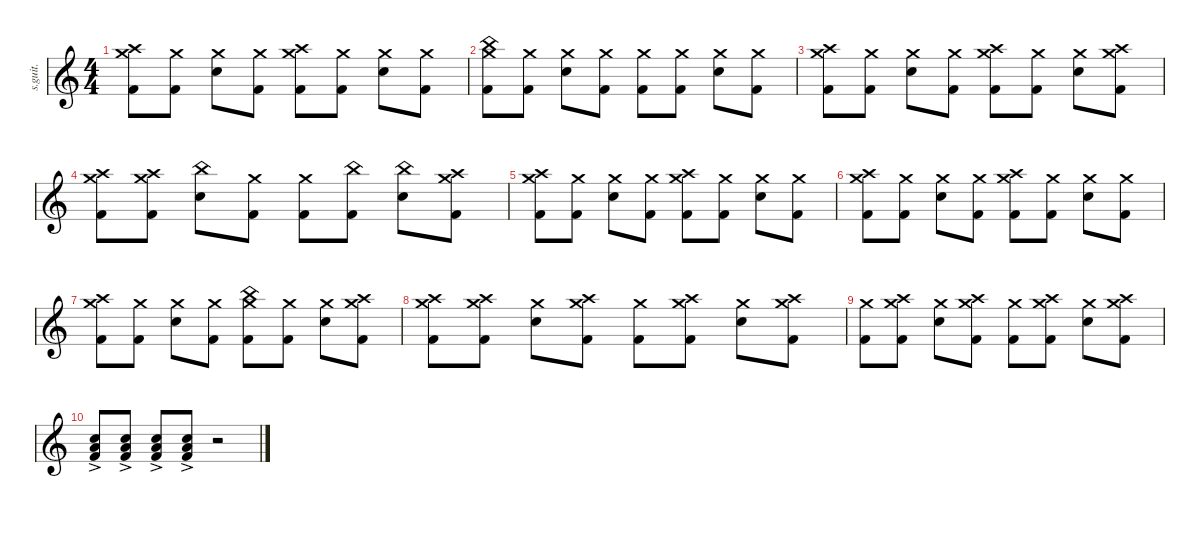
\defaultSystemsLayout 4
\hideDynamics
\bracketExtendMode nobrackets
\track ("Tre Cool" "s.guit.") {instrument percussion}
\staff {score}
\articulation defaults
\ts (4 4)
\tempo (84 hide)
\clef g2
\ks c
("Kick (hit) 2" "Crash medium (hit)" "Crash high (hit)").8{lyrics (0 "") lyrics (1 "") lyrics (2 "") lyrics (3 "") lyrics (4 "") dy f} ("Kick (hit) 2" "Crash medium (hit)").8{lyrics (0 "") lyrics (1 "") lyrics (2 "") lyrics (3 "") lyrics (4 "")} ("Snare (hit) 2" "Crash medium (hit)").8{lyrics (0 "") lyrics (1 "") lyrics (2 "") lyrics (3 "") lyrics (4 "")} ("Kick (hit) 2" "Crash medium (hit)").8{lyrics (0 "") lyrics (1 "") lyrics (2 "") lyrics (3 "") lyrics (4 "")} ("Kick (hit) 2" "Crash medium (hit)" "Crash high (hit)").8{lyrics (0 "") lyrics (1 "") lyrics (2 "") lyrics (3 "") lyrics (4 "")} ("Kick (hit) 2" "Crash medium (hit)").8{lyrics (0 "") lyrics (1 "") lyrics (2 "") lyrics (3 "") lyrics (4 "")} ("Snare (hit) 2" "Crash medium (hit)").8{lyrics (0 "") lyrics (1 "") lyrics (2 "") lyrics (3 "") lyrics (4 "")} ("Kick (hit) 2" "Crash medium (hit)").8{lyrics (0 "") lyrics (1 "") lyrics (2 "") lyrics (3 "") lyrics (4 "")} |
("Kick (hit) 2" "Crash medium (hit)" "China (hit)").8{lyrics (0 "") lyrics (1 "") lyrics (2 "") lyrics (3 "") lyrics (4 "")} ("Kick (hit) 2" "Crash medium (hit)").8{lyrics (0 "") lyrics (1 "") lyrics (2 "") lyrics (3 "") lyrics (4 "")} ("Snare (hit) 2" "Crash medium (hit)").8{lyrics (0 "") lyrics (1 "") lyrics (2 "") lyrics (3 "") lyrics (4 "")} ("Kick (hit) 2" "Crash medium (hit)").8{lyrics (0 "") lyrics (1 "") lyrics (2 "") lyrics (3 "") lyrics (4 "")} ("Kick (hit) 2" "Crash medium (hit)").8{lyrics (0 "") lyrics (1 "") lyrics (2 "") lyrics (3 "") lyrics (4 "")} ("Kick (hit) 2" "Crash medium (hit)").8{lyrics (0 "") lyrics (1 "") lyrics (2 "") lyrics (3 "") lyrics (4 "")} ("Snare (hit) 2" "Crash medium (hit)").8{lyrics (0 "") lyrics (1 "") lyrics (2 "") lyrics (3 "") lyrics (4 "")} ("Kick (hit) 2" "Crash medium (hit)").8{lyrics (0 "") lyrics (1 "") lyrics (2 "") lyrics (3 "") lyrics (4 "")} |
("Kick (hit) 2" "Crash medium (hit)" "Crash high (hit)").8{lyrics (0 "") lyrics (1 "") lyrics (2 "") lyrics (3 "") lyrics (4 "")} ("Kick (hit) 2" "Crash medium (hit)").8{lyrics (0 "") lyrics (1 "") lyrics (2 "") lyrics (3 "") lyrics (4 "")} ("Snare (hit) 2" "Crash medium (hit)").8{lyrics (0 "") lyrics (1 "") lyrics (2 "") lyrics (3 "") lyrics (4 "")} ("Kick (hit) 2" "Crash medium (hit)").8{lyrics (0 "") lyrics (1 "") lyrics (2 "") lyrics (3 "") lyrics (4 "")} ("Kick (hit) 2" "Crash medium (hit)" "Crash high (hit)").8{lyrics (0 "") lyrics (1 "") lyrics (2 "") lyrics (3 "") lyrics (4 "")} ("Kick (hit) 2" "Crash medium (hit)").8{lyrics (0 "") lyrics (1 "") lyrics (2 "") lyrics (3 "") lyrics (4 "")} ("Snare (hit) 2" "Crash medium (hit)").8{lyrics (0 "") lyrics (1 "") lyrics (2 "") lyrics (3 "") lyrics (4 "")} ("Kick (hit) 2" "Crash medium (hit)" "Crash high (hit)").8{lyrics (0 "") lyrics (1 "") lyrics (2 "") lyrics (3 "") lyrics (4 "")} |
("Kick (hit) 2" "Crash medium (hit)" "Crash high (hit)").8{lyrics (0 "") lyrics (1 "") lyrics (2 "") lyrics (3 "") lyrics (4 "")} ("Kick (hit) 2" "Crash medium (hit)" "Crash high (hit)").8{lyrics (0 "") lyrics (1 "") lyrics (2 "") lyrics (3 "") lyrics (4 "")} ("Snare (hit) 2" "China (hit)").8{lyrics (0 "") lyrics (1 "") lyrics (2 "") lyrics (3 "") lyrics (4 "")} ("Kick (hit) 2" "Crash medium (hit)").8{lyrics (0 "") lyrics (1 "") lyrics (2 "") lyrics (3 "") lyrics (4 "")} ("Kick (hit) 2" "Crash medium (hit)").8{lyrics (0 "") lyrics (1 "") lyrics (2 "") lyrics (3 "") lyrics (4 "")} ("Kick (hit) 2" "China (hit)").8{lyrics (0 "") lyrics (1 "") lyrics (2 "") lyrics (3 "") lyrics (4 "")} ("Snare (hit) 2" "China (hit)").8{lyrics (0 "") lyrics (1 "") lyrics (2 "") lyrics (3 "") lyrics (4 "")} ("Kick (hit) 2" "Crash medium (hit)" "Crash high (hit)").8{lyrics (0 "") lyrics (1 "") lyrics (2 "") lyrics (3 "") lyrics (4 "")} |
("Kick (hit) 2" "Crash medium (hit)" "Crash high (hit)").8{lyrics (0 "") lyrics (1 "") lyrics (2 "") lyrics (3 "") lyrics (4 "")} ("Kick (hit) 2" "Crash medium (hit)").8{lyrics (0 "") lyrics (1 "") lyrics (2 "") lyrics (3 "") lyrics (4 "")} ("Snare (hit) 2" "Crash medium (hit)").8{lyrics (0 "") lyrics (1 "") lyrics (2 "") lyrics (3 "") lyrics (4 "")} ("Kick (hit) 2" "Crash medium (hit)").8{lyrics (0 "") lyrics (1 "") lyrics (2 "") lyrics (3 "") lyrics (4 "")} ("Kick (hit) 2" "Crash medium (hit)" "Crash high (hit)").8{lyrics (0 "") lyrics (1 "") lyrics (2 "") lyrics (3 "") lyrics (4 "")} ("Kick (hit) 2" "Crash medium (hit)").8{lyrics (0 "") lyrics (1 "") lyrics (2 "") lyrics (3 "") lyrics (4 "")} ("Snare (hit) 2" "Crash medium (hit)").8{lyrics (0 "") lyrics (1 "") lyrics (2 "") lyrics (3 "") lyrics (4 "")} ("Kick (hit) 2" "Crash medium (hit)").8{lyrics (0 "") lyrics (1 "") lyrics (2 "") lyrics (3 "") lyrics (4 "")} |
("Kick (hit) 2" "Crash medium (hit)" "Crash high (hit)").8{lyrics (0 "") lyrics (1 "") lyrics (2 "") lyrics (3 "") lyrics (4 "")} ("Kick (hit) 2" "Crash medium (hit)").8{lyrics (0 "") lyrics (1 "") lyrics (2 "") lyrics (3 "") lyrics (4 "")} ("Snare (hit) 2" "Crash medium (hit)").8{lyrics (0 "") lyrics (1 "") lyrics (2 "") lyrics (3 "") lyrics (4 "")} ("Kick (hit) 2" "Crash medium (hit)").8{lyrics (0 "") lyrics (1 "") lyrics (2 "") lyrics (3 "") lyrics (4 "")} ("Kick (hit) 2" "Crash medium (hit)" "Crash high (hit)").8{lyrics (0 "") lyrics (1 "") lyrics (2 "") lyrics (3 "") lyrics (4 "")} ("Kick (hit) 2" "Crash medium (hit)").8{lyrics (0 "") lyrics (1 "") lyrics (2 "") lyrics (3 "") lyrics (4 "")} ("Snare (hit) 2" "Crash medium (hit)").8{lyrics (0 "") lyrics (1 "") lyrics (2 "") lyrics (3 "") lyrics (4 "")} ("Kick (hit) 2" "Crash medium (hit)").8{lyrics (0 "") lyrics (1 "") lyrics (2 "") lyrics (3 "") lyrics (4 "")} |
("Kick (hit) 2" "Crash medium (hit)" "Crash high (hit)").8{lyrics (0 "") lyrics (1 "") lyrics (2 "") lyrics (3 "") lyrics (4 "")} ("Kick (hit) 2" "Crash medium (hit)").8{lyrics (0 "") lyrics (1 "") lyrics (2 "") lyrics (3 "") lyrics (4 "")} ("Snare (hit) 2" "Crash medium (hit)").8{lyrics (0 "") lyrics (1 "") lyrics (2 "") lyrics (3 "") lyrics (4 "")} ("Kick (hit) 2" "Crash medium (hit)").8{lyrics (0 "") lyrics (1 "") lyrics (2 "") lyrics (3 "") lyrics (4 "")} ("Kick (hit) 2" "Crash medium (hit)" "China (hit)").8{lyrics (0 "") lyrics (1 "") lyrics (2 "") lyrics (3 "") lyrics (4 "")} ("Kick (hit) 2" "Crash medium (hit)").8{lyrics (0 "") lyrics (1 "") lyrics (2 "") lyrics (3 "") lyrics (4 "")} ("Snare (hit) 2" "Crash medium (hit)").8{lyrics (0 "") lyrics (1 "") lyrics (2 "") lyrics (3 "") lyrics (4 "")} ("Kick (hit) 2" "Crash medium (hit)" "Crash high (hit)").8{lyrics (0 "") lyrics (1 "") lyrics (2 "") lyrics (3 "") lyrics (4 "")} |
("Kick (hit) 2" "Crash medium (hit)" "Crash high (hit)").8{lyrics (0 "") lyrics (1 "") lyrics (2 "") lyrics (3 "") lyrics (4 "")} ("Kick (hit) 2" "Crash medium (hit)" "Crash high (hit)").8{lyrics (0 "") lyrics (1 "") lyrics (2 "") lyrics (3 "") lyrics (4 "")} ("Snare (hit) 2" "Crash medium (hit)").8{lyrics (0 "") lyrics (1 "") lyrics (2 "") lyrics (3 "") lyrics (4 "")} ("Kick (hit) 2" "Crash medium (hit)" "Crash high (hit)").8{lyrics (0 "") lyrics (1 "") lyrics (2 "") lyrics (3 "") lyrics (4 "")} ("Kick (hit) 2" "Crash medium (hit)").8{lyrics (0 "") lyrics (1 "") lyrics (2 "") lyrics (3 "") lyrics (4 "")} ("Kick (hit) 2" "Crash medium (hit)" "Crash high (hit)").8{lyrics (0 "") lyrics (1 "") lyrics (2 "") lyrics (3 "") lyrics (4 "")} ("Snare (hit) 2" "Crash medium (hit)").8{lyrics (0 "") lyrics (1 "") lyrics (2 "") lyrics (3 "") lyrics (4 "")} ("Kick (hit) 2" "Crash medium (hit)" "Crash high (hit)").8{lyrics (0 "") lyrics (1 "") lyrics (2 "") lyrics (3 "") lyrics (4 "")} |
("Kick (hit) 2" "Crash medium (hit)").8{lyrics (0 "") lyrics (1 "") lyrics (2 "") lyrics (3 "") lyrics (4 "")} ("Kick (hit) 2" "Crash medium (hit)" "Crash high (hit)").8{lyrics (0 "") lyrics (1 "") lyrics (2 "") lyrics (3 "") lyrics (4 "")} ("Snare (hit) 2" "Crash medium (hit)").8{lyrics (0 "") lyrics (1 "") lyrics (2 "") lyrics (3 "") lyrics (4 "")} ("Kick (hit) 2" "Crash medium (hit)" "Crash high (hit)").8{lyrics (0 "") lyrics (1 "") lyrics (2 "") lyrics (3 "") lyrics (4 "")} ("Kick (hit) 2" "Crash medium (hit)").8{lyrics (0 "") lyrics (1 "") lyrics (2 "") lyrics (3 "") lyrics (4 "")} ("Kick (hit) 2" "Crash medium (hit)" "Crash high (hit)").8{lyrics (0 "") lyrics (1 "") lyrics (2 "") lyrics (3 "") lyrics (4 "")} ("Snare (hit) 2" "Crash medium (hit)").8{lyrics (0 "") lyrics (1 "") lyrics (2 "") lyrics (3 "") lyrics (4 "")} ("Kick (hit) 2" "Crash medium (hit)" "Crash high (hit)").8{lyrics (0 "") lyrics (1 "") lyrics (2 "") lyrics (3 "") lyrics (4 "")} |
("Low Tom (hit)"{ac} "Snare (hit) 2"{ac} "Kick (hit) 2"{ac}).8{lyrics (0 "") lyrics (1 "") lyrics (2 "") lyrics (3 "") lyrics (4 "")} ("Low Tom (hit)"{ac} "Snare (hit) 2"{ac} "Kick (hit) 2"{ac}).8{lyrics (0 "") lyrics (1 "") lyrics (2 "") lyrics (3 "") lyrics (4 "")} ("Low Tom (hit)"{ac} "Snare (hit) 2"{ac} "Kick (hit) 2"{ac}).8{lyrics (0 "") lyrics (1 "") lyrics (2 "") lyrics (3 "") lyrics (4 "")} ("Low Tom (hit)"{ac} "Snare (hit) 2"{ac} "Kick (hit) 2"{ac}).8{lyrics (0 "") lyrics (1 "") lyrics (2 "") lyrics (3 "") lyrics (4 "")} r.2
